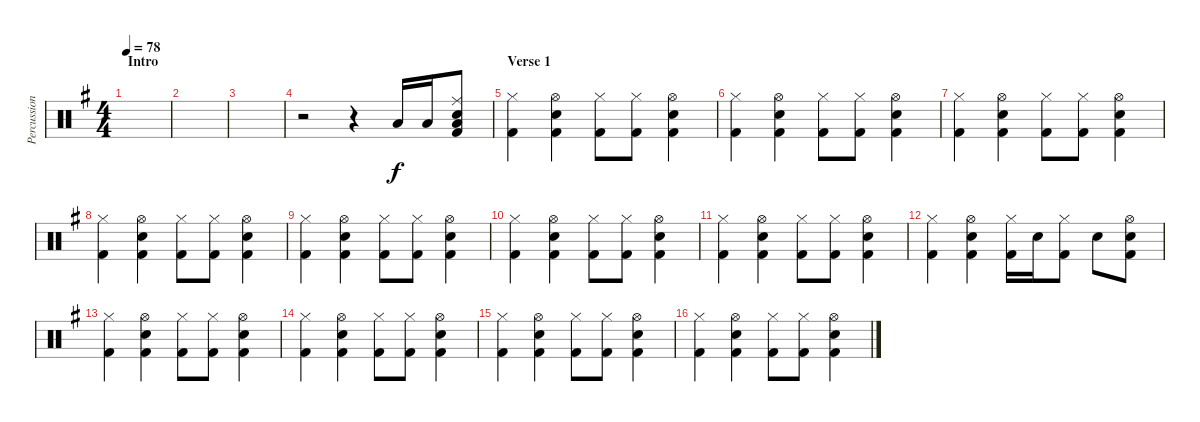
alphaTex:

\track ("Percussion" "Percussion") {instrument percussion}
\staff {score}
\articulation defaults
\ts (4 4)
\section ("" "Intro")
\tempo 78
\clef neutral
\ks g
|
|
|
r.2 r.4 "Low Floor Tom (hit)".16 "Low Tom (hit)".16 ("Snare (hit) 2" "Ride (middle)" "Low Floor Tom (hit)" "Kick (hit) 2").8 |
\section ("" "Verse 1")
("Hi-Hat (closed)" "Kick (hit) 2").4 ("Hi-Hat (open)" "Snare (hit) 2" "Kick (hit) 2").4 ("Hi-Hat (closed)" "Kick (hit) 2").8 ("Hi-Hat (closed)" "Kick (hit) 2").8 ("Hi-Hat (open)" "Snare (hit) 2" "Kick (hit) 2").4 |
("Hi-Hat (closed)" "Kick (hit) 2").4 ("Hi-Hat (open)" "Snare (hit) 2" "Kick (hit) 2").4 ("Hi-Hat (closed)" "Kick (hit) 2").8 ("Hi-Hat (closed)" "Kick (hit) 2").8 ("Hi-Hat (open)" "Snare (hit) 2" "Kick (hit) 2").4 |
("Hi-Hat (closed)" "Kick (hit) 2").4 ("Hi-Hat (open)" "Snare (hit) 2" "Kick (hit) 2").4 ("Hi-Hat (closed)" "Kick (hit) 2").8 ("Hi-Hat (closed)" "Kick (hit) 2").8 ("Hi-Hat (open)" "Snare (hit) 2" "Kick (hit) 2").4 |
("Hi-Hat (closed)" "Kick (hit) 2").4 ("Hi-Hat (open)" "Snare (hit) 2" "Kick (hit) 2").4 ("Hi-Hat (closed)" "Kick (hit) 2").8 ("Hi-Hat (closed)" "Kick (hit) 2").8 ("Hi-Hat (open)" "Snare (hit) 2" "Kick (hit) 2").4 |
("Hi-Hat (closed)" "Kick (hit) 2").4 ("Hi-Hat (open)" "Snare (hit) 2" "Kick (hit) 2").4 ("Hi-Hat (closed)" "Kick (hit) 2").8 ("Hi-Hat (closed)" "Kick (hit) 2").8 ("Hi-Hat (open)" "Snare (hit) 2" "Kick (hit) 2").4 |
("Hi-Hat (closed)" "Kick (hit) 2").4 ("Hi-Hat (open)" "Snare (hit) 2" "Kick (hit) 2").4 ("Hi-Hat (closed)" "Kick (hit) 2").8 ("Hi-Hat (closed)" "Kick (hit) 2").8 ("Hi-Hat (open)" "Snare (hit) 2" "Kick (hit) 2").4 |
("Hi-Hat (closed)" "Kick (hit) 2").4 ("Hi-Hat (open)" "Snare (hit) 2" "Kick (hit) 2").4 ("Hi-Hat (closed)" "Kick (hit) 2").8 ("Hi-Hat (closed)" "Kick (hit) 2").8 ("Hi-Hat (open)" "Snare (hit) 2" "Kick (hit) 2").4 |
("Hi-Hat (closed)" "Kick (hit) 2").4 ("Hi-Hat (open)" "Snare (hit) 2" "Kick (hit) 2").4 ("Hi-Hat (closed)" "Kick (hit) 2").16 "Snare (hit) 2".16 ("Hi-Hat (closed)" "Kick (hit) 2").8 "Snare (hit) 2".8 ("Hi-Hat (open)" "Snare (hit) 2" "Kick (hit) 2").8 |
("Hi-Hat (closed)" "Kick (hit) 2").4 ("Hi-Hat (open)" "Snare (hit) 2" "Kick (hit) 2").4 ("Hi-Hat (closed)" "Kick (hit) 2").8 ("Hi-Hat (closed)" "Kick (hit) 2").8 ("Hi-Hat (open)" "Snare (hit) 2" "Kick (hit) 2").4 |
("Hi-Hat (closed)" "Kick (hit) 2").4 ("Hi-Hat (open)" "Snare (hit) 2" "Kick (hit) 2").4 ("Hi-Hat (closed)" "Kick (hit) 2").8 ("Hi-Hat (closed)" "Kick (hit) 2").8 ("Hi-Hat (open)" "Snare (hit) 2" "Kick (hit) 2").4 |
("Hi-Hat (closed)" "Kick (hit) 2").4 ("Hi-Hat (open)" "Snare (hit) 2" "Kick (hit) 2").4 ("Hi-Hat (closed)" "Kick (hit) 2").8 ("Hi-Hat (closed)" "Kick (hit) 2").8 ("Hi-Hat (open)" "Snare (hit) 2" "Kick (hit) 2").4 |
("Hi-Hat (closed)" "Kick (hit) 2").4 ("Hi-Hat (open)" "Snare (hit) 2" "Kick (hit) 2").4 ("Hi-Hat (closed)" "Kick (hit) 2").8 ("Hi-Hat (closed)" "Kick (hit) 2").8 ("Hi-Hat (open)" "Snare (hit) 2" "Kick (hit) 2").4
